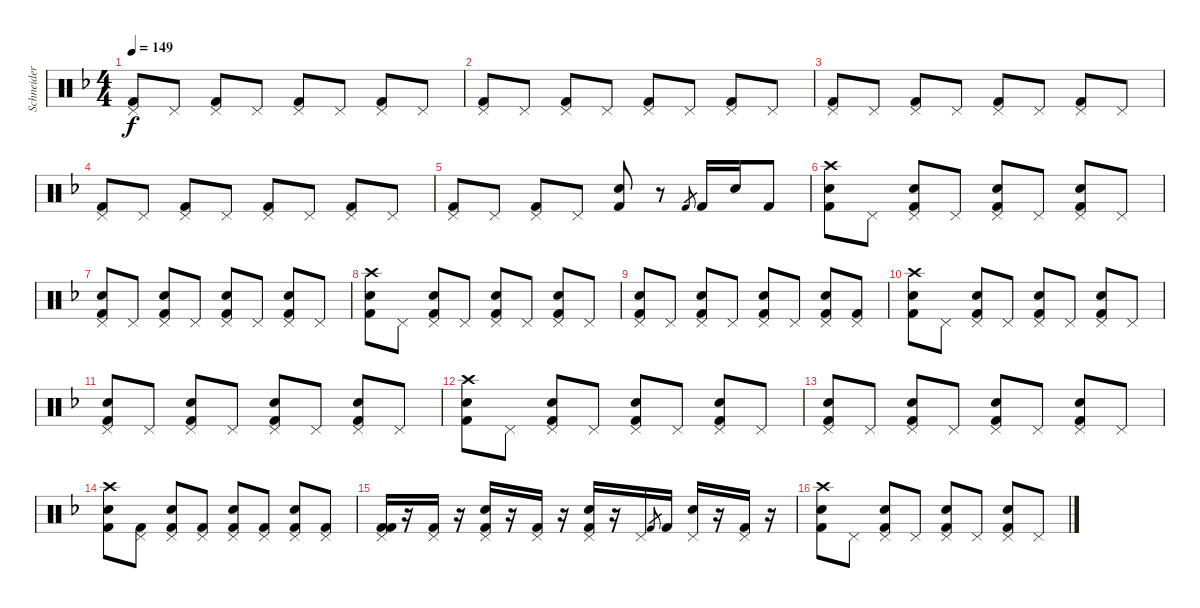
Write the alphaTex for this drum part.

\track ("Schneider" "Schneider") {instrument percussion}
\staff {score}
\articulation defaults
\ts (4 4)
\tempo 149
\clef neutral
\ks dminor
("Pedal Hi-Hat (hit)" "Kick (hit) 2").8{dy f} "Pedal Hi-Hat (hit)".8 ("Pedal Hi-Hat (hit)" "Kick (hit) 2").8 "Pedal Hi-Hat (hit)".8 ("Pedal Hi-Hat (hit)" "Kick (hit) 2").8 "Pedal Hi-Hat (hit)".8 ("Pedal Hi-Hat (hit)" "Kick (hit) 2").8 "Pedal Hi-Hat (hit)".8 |
("Pedal Hi-Hat (hit)" "Kick (hit) 2").8 "Pedal Hi-Hat (hit)".8 ("Pedal Hi-Hat (hit)" "Kick (hit) 2").8 "Pedal Hi-Hat (hit)".8 ("Pedal Hi-Hat (hit)" "Kick (hit) 2").8 "Pedal Hi-Hat (hit)".8 ("Pedal Hi-Hat (hit)" "Kick (hit) 2").8 "Pedal Hi-Hat (hit)".8 |
("Pedal Hi-Hat (hit)" "Kick (hit) 2").8 "Pedal Hi-Hat (hit)".8 ("Pedal Hi-Hat (hit)" "Kick (hit) 2").8 "Pedal Hi-Hat (hit)".8 ("Pedal Hi-Hat (hit)" "Kick (hit) 2").8 "Pedal Hi-Hat (hit)".8 ("Pedal Hi-Hat (hit)" "Kick (hit) 2").8 "Pedal Hi-Hat (hit)".8 |
("Pedal Hi-Hat (hit)" "Kick (hit) 2").8 "Pedal Hi-Hat (hit)".8 ("Pedal Hi-Hat (hit)" "Kick (hit) 2").8 "Pedal Hi-Hat (hit)".8 ("Pedal Hi-Hat (hit)" "Kick (hit) 2").8 "Pedal Hi-Hat (hit)".8 ("Pedal Hi-Hat (hit)" "Kick (hit) 2").8 "Pedal Hi-Hat (hit)".8 |
("Pedal Hi-Hat (hit)" "Kick (hit) 2").8 "Pedal Hi-Hat (hit)".8 ("Pedal Hi-Hat (hit)" "Kick (hit) 2").8 "Pedal Hi-Hat (hit)".8 ("Snare (hit) 2" "Kick (hit) 2").8 r.8 "Kick (hit) 2".8{gr} "Kick (hit) 2".16 "Snare (hit) 2".16 "Kick (hit) 2".8 |
("Crash high (hit)" "Snare (hit) 2" "Kick (hit) 2").8 "Pedal Hi-Hat (hit)".8 ("Pedal Hi-Hat (hit)" "Snare (hit) 2" "Kick (hit) 2").8 "Pedal Hi-Hat (hit)".8 ("Pedal Hi-Hat (hit)" "Snare (hit) 2" "Kick (hit) 2").8 "Pedal Hi-Hat (hit)".8 ("Pedal Hi-Hat (hit)" "Snare (hit) 2" "Kick (hit) 2").8 "Pedal Hi-Hat (hit)".8 |
("Pedal Hi-Hat (hit)" "Snare (hit) 2" "Kick (hit) 2").8 "Pedal Hi-Hat (hit)".8 ("Pedal Hi-Hat (hit)" "Snare (hit) 2" "Kick (hit) 2").8 "Pedal Hi-Hat (hit)".8 ("Pedal Hi-Hat (hit)" "Snare (hit) 2" "Kick (hit) 2").8 "Pedal Hi-Hat (hit)".8 ("Pedal Hi-Hat (hit)" "Snare (hit) 2" "Kick (hit) 2").8 "Pedal Hi-Hat (hit)".8 |
("Crash high (hit)" "Snare (hit) 2" "Kick (hit) 2").8 "Pedal Hi-Hat (hit)".8 ("Pedal Hi-Hat (hit)" "Snare (hit) 2" "Kick (hit) 2").8 "Pedal Hi-Hat (hit)".8 ("Pedal Hi-Hat (hit)" "Snare (hit) 2" "Kick (hit) 2").8 "Pedal Hi-Hat (hit)".8 ("Pedal Hi-Hat (hit)" "Snare (hit) 2" "Kick (hit) 2").8 "Pedal Hi-Hat (hit)".8 |
("Pedal Hi-Hat (hit)" "Snare (hit) 2" "Kick (hit) 2").8 "Pedal Hi-Hat (hit)".8 ("Pedal Hi-Hat (hit)" "Snare (hit) 2" "Kick (hit) 2").8 "Pedal Hi-Hat (hit)".8 ("Pedal Hi-Hat (hit)" "Snare (hit) 2" "Kick (hit) 2").8 "Pedal Hi-Hat (hit)".8 ("Pedal Hi-Hat (hit)" "Snare (hit) 2" "Kick (hit) 2").8 ("Pedal Hi-Hat (hit)" "Kick (hit) 2").8 |
("Crash high (hit)" "Snare (hit) 2" "Kick (hit) 2").8 "Pedal Hi-Hat (hit)".8 ("Pedal Hi-Hat (hit)" "Snare (hit) 2" "Kick (hit) 2").8 "Pedal Hi-Hat (hit)".8 ("Pedal Hi-Hat (hit)" "Snare (hit) 2" "Kick (hit) 2").8 "Pedal Hi-Hat (hit)".8 ("Pedal Hi-Hat (hit)" "Snare (hit) 2" "Kick (hit) 2").8 "Pedal Hi-Hat (hit)".8 |
("Pedal Hi-Hat (hit)" "Snare (hit) 2" "Kick (hit) 2").8 "Pedal Hi-Hat (hit)".8 ("Pedal Hi-Hat (hit)" "Snare (hit) 2" "Kick (hit) 2").8 "Pedal Hi-Hat (hit)".8 ("Pedal Hi-Hat (hit)" "Snare (hit) 2" "Kick (hit) 2").8 "Pedal Hi-Hat (hit)".8 ("Pedal Hi-Hat (hit)" "Snare (hit) 2" "Kick (hit) 2").8 "Pedal Hi-Hat (hit)".8 |
("Crash high (hit)" "Snare (hit) 2" "Kick (hit) 2").8 "Pedal Hi-Hat (hit)".8 ("Pedal Hi-Hat (hit)" "Snare (hit) 2" "Kick (hit) 2").8 "Pedal Hi-Hat (hit)".8 ("Pedal Hi-Hat (hit)" "Snare (hit) 2" "Kick (hit) 2").8 "Pedal Hi-Hat (hit)".8 ("Pedal Hi-Hat (hit)" "Snare (hit) 2" "Kick (hit) 2").8 "Pedal Hi-Hat (hit)".8 |
("Pedal Hi-Hat (hit)" "Snare (hit) 2" "Kick (hit) 2").8 "Pedal Hi-Hat (hit)".8 ("Pedal Hi-Hat (hit)" "Snare (hit) 2" "Kick (hit) 2").8 "Pedal Hi-Hat (hit)".8 ("Pedal Hi-Hat (hit)" "Snare (hit) 2" "Kick (hit) 2").8 "Pedal Hi-Hat (hit)".8 ("Pedal Hi-Hat (hit)" "Snare (hit) 2" "Kick (hit) 2").8 "Pedal Hi-Hat (hit)".8 |
("Crash high (hit)" "Snare (hit) 2" "Kick (hit) 2").8 ("Pedal Hi-Hat (hit)" "Kick (hit) 2").8 ("Pedal Hi-Hat (hit)" "Snare (hit) 2" "Kick (hit) 2").8 ("Pedal Hi-Hat (hit)" "Kick (hit) 2").8 ("Pedal Hi-Hat (hit)" "Snare (hit) 2" "Kick (hit) 2").8 ("Pedal Hi-Hat (hit)" "Kick (hit) 2").8 ("Pedal Hi-Hat (hit)" "Snare (hit) 2" "Kick (hit) 2").8 ("Pedal Hi-Hat (hit)" "Kick (hit) 2").8 |
("Pedal Hi-Hat (hit)" "Kick (hit) 2" "Kick (hit) 2").16 r.16 ("Pedal Hi-Hat (hit)" "Kick (hit) 2").16 r.16 ("Pedal Hi-Hat (hit)" "Snare (hit) 2" "Kick (hit) 2").16 r.16 ("Pedal Hi-Hat (hit)" "Kick (hit) 2").16 r.16 ("Pedal Hi-Hat (hit)" "Snare (hit) 2" "Kick (hit) 2").16 r.16 "Pedal Hi-Hat (hit)".16 "Kick (hit) 2".8{gr} "Kick (hit) 2".16 ("Pedal Hi-Hat (hit)" "Snare (hit) 2").16 r.16 ("Pedal Hi-Hat (hit)" "Kick (hit) 2").16 r.16 |
("Crash high (hit)" "Snare (hit) 2" "Kick (hit) 2").8 "Pedal Hi-Hat (hit)".8 ("Pedal Hi-Hat (hit)" "Snare (hit) 2" "Kick (hit) 2").8 "Pedal Hi-Hat (hit)".8 ("Pedal Hi-Hat (hit)" "Snare (hit) 2" "Kick (hit) 2").8 "Pedal Hi-Hat (hit)".8 ("Pedal Hi-Hat (hit)" "Snare (hit) 2" "Kick (hit) 2").8 "Pedal Hi-Hat (hit)".8
